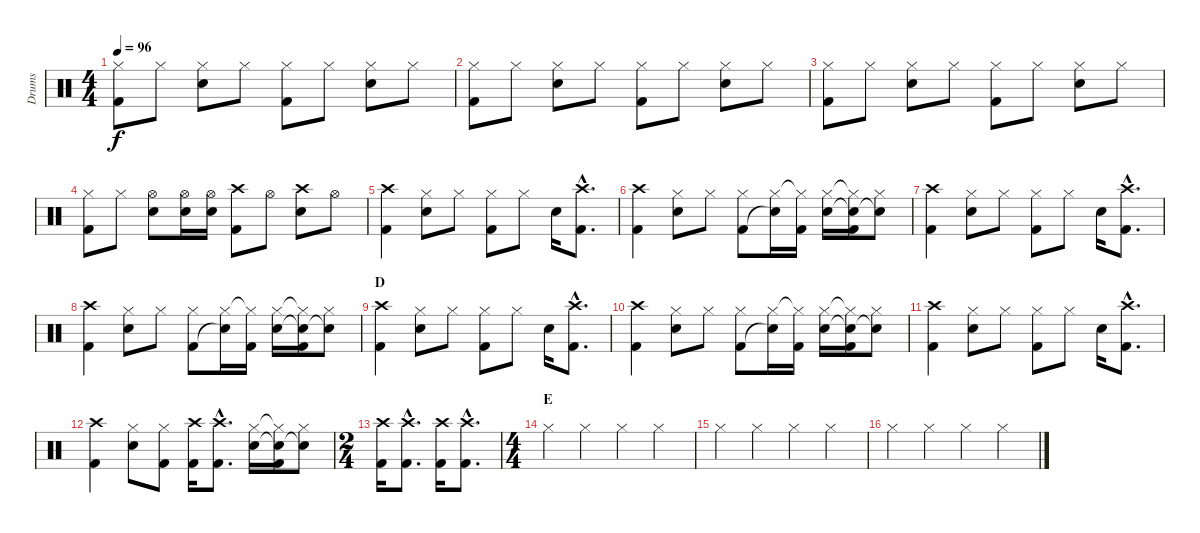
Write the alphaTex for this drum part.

\track ("Drums" "Drums") {instrument percussion}
\staff {score}
\articulation defaults
\ts (4 4)
\tempo 96
\clef neutral
\ks c
("Hi-Hat (closed)" "Kick (hit) 2").8{dy f} "Hi-Hat (closed)".8 ("Hi-Hat (closed)" "Snare (hit) 2").8 "Hi-Hat (closed)".8 ("Hi-Hat (closed)" "Kick (hit) 2").8 "Hi-Hat (closed)".8 ("Hi-Hat (closed)" "Snare (hit) 2").8 "Hi-Hat (closed)".8 |
("Hi-Hat (closed)" "Kick (hit) 2").8 "Hi-Hat (closed)".8 ("Hi-Hat (closed)" "Snare (hit) 2").8 "Hi-Hat (closed)".8 ("Hi-Hat (closed)" "Kick (hit) 2").8 "Hi-Hat (closed)".8 ("Hi-Hat (closed)" "Snare (hit) 2").8 "Hi-Hat (closed)".8 |
("Hi-Hat (closed)" "Kick (hit) 2").8 "Hi-Hat (closed)".8 ("Hi-Hat (closed)" "Snare (hit) 2").8 "Hi-Hat (closed)".8 ("Hi-Hat (closed)" "Kick (hit) 2").8 "Hi-Hat (closed)".8 ("Hi-Hat (closed)" "Snare (hit) 2").8 "Hi-Hat (closed)".8 |
("Hi-Hat (closed)" "Kick (hit) 2").8 "Hi-Hat (closed)".8 ("Hi-Hat (open)" "Snare (hit) 2").8 ("Hi-Hat (open)" "Snare (hit) 2").16 ("Hi-Hat (open)" "Snare (hit) 2").16 ("Crash high (hit)" "Kick (hit) 2").8 "Hi-Hat (open)".8 ("Crash high (hit)" "Snare (hit) 2").8 "Hi-Hat (open)".8 |
("Crash high (hit)" "Kick (hit) 2").4 ("Hi-Hat (closed)" "Snare (hit) 2").8 "Hi-Hat (closed)".8 ("Hi-Hat (closed)" "Kick (hit) 2").8 "Hi-Hat (closed)".8 "Snare (hit) 2".16 ("Crash high (hit)"{hac} "Kick (hit) 2"{hac}).8{d} |
("Crash high (hit)" "Kick (hit) 2").4 ("Hi-Hat (closed)" "Snare (hit) 2").8 "Hi-Hat (closed)".8 ("Hi-Hat (closed)" "Kick (hit) 2").8 ("Hi-Hat (closed)" "Snare (hit)"{t}).16 ("Hi-Hat (closed)"{t} "Kick (hit) 2").16 ("Hi-Hat (closed)" "Snare (hit) 2").16 ("Hi-Hat (closed)"{t} "Snare (hit)"{t} "Kick (hit) 2").16 ("Hi-Hat (closed)" "Snare (hit)"{t}).8 |
("Crash high (hit)" "Kick (hit) 2").4 ("Hi-Hat (closed)" "Snare (hit) 2").8 "Hi-Hat (closed)".8 ("Hi-Hat (closed)" "Kick (hit) 2").8 "Hi-Hat (closed)".8 "Snare (hit) 2".16 ("Crash high (hit)"{hac} "Kick (hit) 2"{hac}).8{d} |
("Crash high (hit)" "Kick (hit) 2").4 ("Hi-Hat (closed)" "Snare (hit) 2").8 "Hi-Hat (closed)".8 ("Hi-Hat (closed)" "Kick (hit) 2").8 ("Hi-Hat (closed)" "Snare (hit)"{t}).16 ("Hi-Hat (closed)"{t} "Kick (hit) 2").16 ("Hi-Hat (closed)" "Snare (hit) 2").16 ("Hi-Hat (closed)"{t} "Snare (hit)"{t} "Kick (hit) 2").16 ("Hi-Hat (closed)" "Snare (hit)"{t}).8 |
\section ("" "D")
("Crash high (hit)" "Kick (hit) 2").4 ("Hi-Hat (closed)" "Snare (hit) 2").8 "Hi-Hat (closed)".8 ("Hi-Hat (closed)" "Kick (hit) 2").8 "Hi-Hat (closed)".8 "Snare (hit) 2".16 ("Crash high (hit)"{hac} "Kick (hit) 2"{hac}).8{d} |
("Crash high (hit)" "Kick (hit) 2").4 ("Hi-Hat (closed)" "Snare (hit) 2").8 "Hi-Hat (closed)".8 ("Hi-Hat (closed)" "Kick (hit) 2").8 ("Hi-Hat (closed)" "Snare (hit)"{t}).16 ("Hi-Hat (closed)"{t} "Kick (hit) 2").16 ("Hi-Hat (closed)" "Snare (hit) 2").16 ("Hi-Hat (closed)"{t} "Snare (hit)"{t} "Kick (hit) 2").16 ("Hi-Hat (closed)" "Snare (hit)"{t}).8 |
("Crash high (hit)" "Kick (hit) 2").4 ("Hi-Hat (closed)" "Snare (hit) 2").8 "Hi-Hat (closed)".8 ("Hi-Hat (closed)" "Kick (hit) 2").8 "Hi-Hat (closed)".8 "Snare (hit) 2".16 ("Crash high (hit)"{hac} "Kick (hit) 2"{hac}).8{d} |
("Crash high (hit)" "Kick (hit) 2").4 ("Hi-Hat (closed)" "Snare (hit) 2").8 ("Hi-Hat (closed)" "Kick (hit) 2").8 ("Crash high (hit)" "Kick (hit) 2").16 ("Crash high (hit)"{hac} "Kick (hit) 2"{hac}).8{d} ("Hi-Hat (closed)" "Snare (hit) 2").16 ("Hi-Hat (closed)"{t} "Snare (hit)"{t} "Kick (hit) 2").16 ("Hi-Hat (closed)" "Snare (hit)"{t}).8 |
\ts (2 4)
("Crash high (hit)" "Kick (hit) 2").16 ("Crash high (hit)"{hac} "Kick (hit) 2"{hac}).8{d} ("Crash high (hit)" "Kick (hit) 2").16 ("Crash high (hit)"{hac} "Kick (hit) 2"{hac}).8{d} |
\ts (4 4)
\section ("" "E")
"Hi-Hat (closed)".4 "Hi-Hat (closed)".4 "Hi-Hat (closed)".4 "Hi-Hat (closed)".4 |
"Hi-Hat (closed)".4 "Hi-Hat (closed)".4 "Hi-Hat (closed)".4 "Hi-Hat (closed)".4 |
"Hi-Hat (closed)".4 "Hi-Hat (closed)".4 "Hi-Hat (closed)".4 "Hi-Hat (closed)".4
